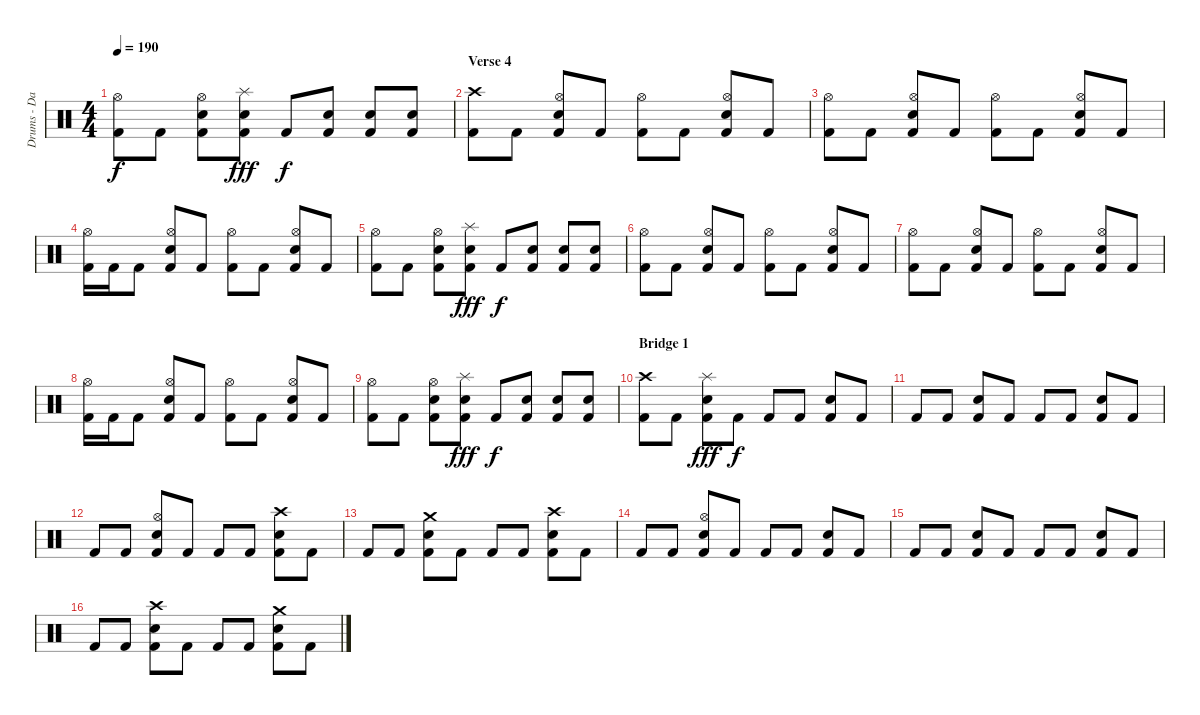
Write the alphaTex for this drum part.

\track ("Drums - Daniel Zimmermann" "Drums - Da") {instrument percussion}
\staff {score}
\articulation defaults
\ts (4 4)
\tempo 190
\clef neutral
\ks c
("Kick (hit) 2" "Hi-Hat (open)").8{dy f} "Kick (hit) 2".8 ("Kick (hit) 2" "Electric Snare (hit)" "Hi-Hat (open)").8 ("Kick (hit) 2" "Electric Snare (hit)" "Splash (hit)").8{dy fff} "Kick (hit) 2".8{dy f} ("Kick (hit) 2" "Electric Snare (hit)").8 ("Kick (hit) 2" "Electric Snare (hit)").8 ("Kick (hit) 2" "Electric Snare (hit)").8 |
\section ("" "Verse 4")
("Kick (hit) 2" "Crash high (hit)").8 "Kick (hit) 2".8 ("Kick (hit) 2" "Electric Snare (hit)" "Hi-Hat (open)").8 "Kick (hit) 2".8 ("Kick (hit) 2" "Hi-Hat (open)").8 "Kick (hit) 2".8 ("Kick (hit) 2" "Electric Snare (hit)" "Hi-Hat (open)").8 "Kick (hit) 2".8 |
("Kick (hit) 2" "Hi-Hat (open)").8 "Kick (hit) 2".8 ("Kick (hit) 2" "Electric Snare (hit)" "Hi-Hat (open)").8 "Kick (hit) 2".8 ("Kick (hit) 2" "Hi-Hat (open)").8 "Kick (hit) 2".8 ("Kick (hit) 2" "Electric Snare (hit)" "Hi-Hat (open)").8 "Kick (hit) 2".8 |
("Kick (hit) 2" "Hi-Hat (open)").16 "Kick (hit) 2".16 "Kick (hit) 2".8 ("Kick (hit) 2" "Electric Snare (hit)" "Hi-Hat (open)").8 "Kick (hit) 2".8 ("Kick (hit) 2" "Hi-Hat (open)").8 "Kick (hit) 2".8 ("Kick (hit) 2" "Electric Snare (hit)" "Hi-Hat (open)").8 "Kick (hit) 2".8 |
("Kick (hit) 2" "Hi-Hat (open)").8 "Kick (hit) 2".8 ("Kick (hit) 2" "Electric Snare (hit)" "Hi-Hat (open)").8 ("Kick (hit) 2" "Electric Snare (hit)" "Splash (hit)").8{dy fff} "Kick (hit) 2".8{dy f} ("Kick (hit) 2" "Electric Snare (hit)").8 ("Kick (hit) 2" "Electric Snare (hit)").8 ("Kick (hit) 2" "Electric Snare (hit)").8 |
("Kick (hit) 2" "Hi-Hat (open)").8 "Kick (hit) 2".8 ("Kick (hit) 2" "Electric Snare (hit)" "Hi-Hat (open)").8 "Kick (hit) 2".8 ("Kick (hit) 2" "Hi-Hat (open)").8 "Kick (hit) 2".8 ("Kick (hit) 2" "Electric Snare (hit)" "Hi-Hat (open)").8 "Kick (hit) 2".8 |
("Kick (hit) 2" "Hi-Hat (open)").8 "Kick (hit) 2".8 ("Kick (hit) 2" "Electric Snare (hit)" "Hi-Hat (open)").8 "Kick (hit) 2".8 ("Kick (hit) 2" "Hi-Hat (open)").8 "Kick (hit) 2".8 ("Kick (hit) 2" "Electric Snare (hit)" "Hi-Hat (open)").8 "Kick (hit) 2".8 |
("Kick (hit) 2" "Hi-Hat (open)").16 "Kick (hit) 2".16 "Kick (hit) 2".8 ("Kick (hit) 2" "Electric Snare (hit)" "Hi-Hat (open)").8 "Kick (hit) 2".8 ("Kick (hit) 2" "Hi-Hat (open)").8 "Kick (hit) 2".8 ("Kick (hit) 2" "Electric Snare (hit)" "Hi-Hat (open)").8 "Kick (hit) 2".8 |
("Kick (hit) 2" "Hi-Hat (open)").8 "Kick (hit) 2".8 ("Kick (hit) 2" "Electric Snare (hit)" "Hi-Hat (open)").8 ("Kick (hit) 2" "Electric Snare (hit)" "Splash (hit)").8{dy fff} "Kick (hit) 2".8{dy f} ("Kick (hit) 2" "Electric Snare (hit)").8 ("Kick (hit) 2" "Electric Snare (hit)").8 ("Kick (hit) 2" "Electric Snare (hit)").8 |
\section ("" "Bridge 1")
("Kick (hit) 2" "Crash high (hit)").8 "Kick (hit) 2".8 ("Kick (hit) 2" "Electric Snare (hit)" "Splash (hit)").8{dy fff} "Kick (hit) 2".8{dy f} "Kick (hit) 2".8 "Kick (hit) 2".8 ("Kick (hit) 2" "Electric Snare (hit)").8 "Kick (hit) 2".8 |
"Kick (hit) 2".8 "Kick (hit) 2".8 ("Kick (hit) 2" "Electric Snare (hit)").8 "Kick (hit) 2".8 "Kick (hit) 2".8 "Kick (hit) 2".8 ("Kick (hit) 2" "Electric Snare (hit)").8 "Kick (hit) 2".8 |
"Kick (hit) 2".8 "Kick (hit) 2".8 ("Kick (hit) 2" "Electric Snare (hit)" "Hi-Hat (open)").8 "Kick (hit) 2".8 "Kick (hit) 2".8 "Kick (hit) 2".8 ("Kick (hit) 2" "Electric Snare (hit)" "Crash high (hit)").8 "Kick (hit) 2".8 |
"Kick (hit) 2".8 "Kick (hit) 2".8 ("Kick (hit) 2" "Electric Snare (hit)" "Crash medium (hit)").8 "Kick (hit) 2".8 "Kick (hit) 2".8 "Kick (hit) 2".8 ("Kick (hit) 2" "Electric Snare (hit)" "Crash high (hit)").8 "Kick (hit) 2".8 |
"Kick (hit) 2".8 "Kick (hit) 2".8 ("Kick (hit) 2" "Electric Snare (hit)" "Hi-Hat (open)").8 "Kick (hit) 2".8 "Kick (hit) 2".8 "Kick (hit) 2".8 ("Kick (hit) 2" "Electric Snare (hit)").8 "Kick (hit) 2".8 |
"Kick (hit) 2".8 "Kick (hit) 2".8 ("Kick (hit) 2" "Electric Snare (hit)").8 "Kick (hit) 2".8 "Kick (hit) 2".8 "Kick (hit) 2".8 ("Kick (hit) 2" "Electric Snare (hit)").8 "Kick (hit) 2".8 |
"Kick (hit) 2".8 "Kick (hit) 2".8 ("Kick (hit) 2" "Electric Snare (hit)" "Crash high (hit)").8 "Kick (hit) 2".8 "Kick (hit) 2".8 "Kick (hit) 2".8 ("Kick (hit) 2" "Electric Snare (hit)" "Crash medium (hit)").8 "Kick (hit) 2".8
